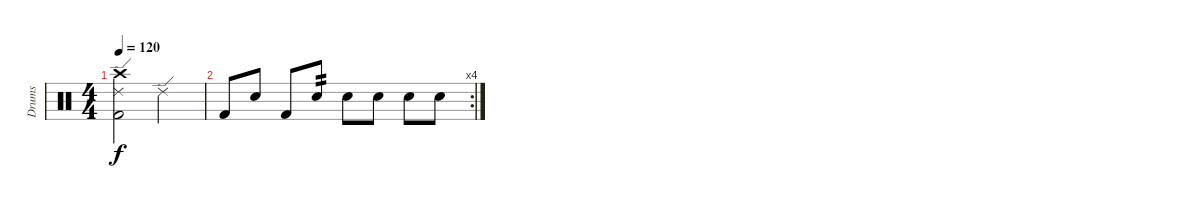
\track ("Drums" "Drums") {instrument percussion}
\staff {score}
\articulation defaults
\ts (4 4)
\tempo 120
\clef neutral
\ks c
("Kick (hit) 2"{t} "Ride (edge) 2"{t} "Crash high (hit)"{t}).2{dy f} "Ride (edge) 2".2 |
\rc 4 "Kick (hit) 2".8 "Snare (hit) 2".8 "Kick (hit) 2".8 "Snare (hit) 2".8{tp 2} "Snare (hit) 2".8 "Snare (hit) 2".8 "Snare (hit) 2".8 "Snare (hit) 2".8
